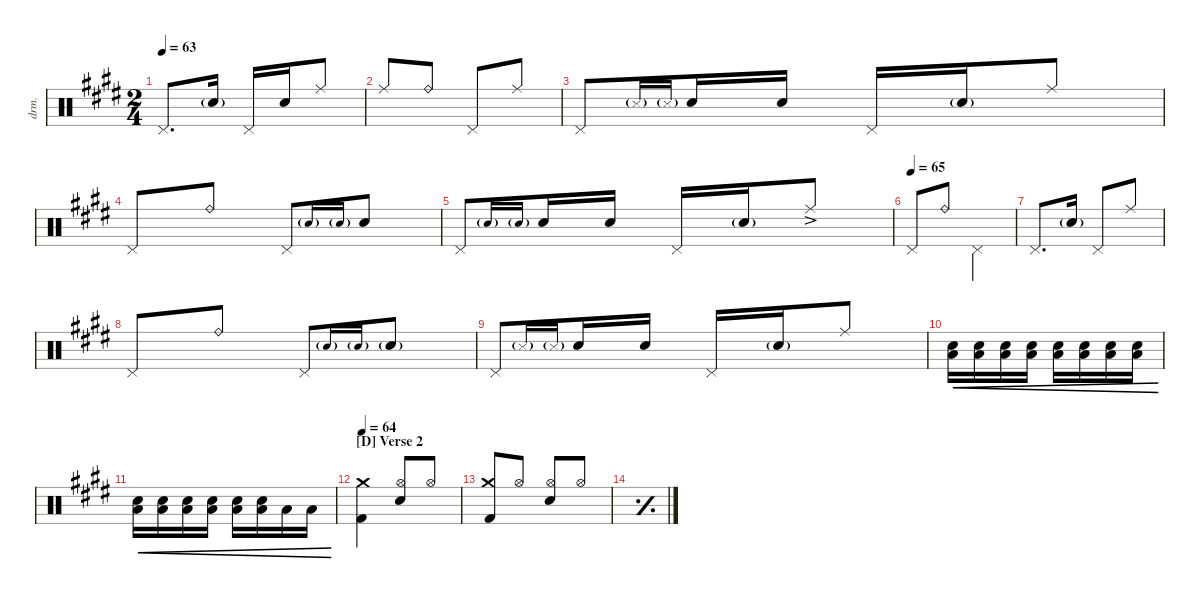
\defaultSystemsLayout 4
\hideDynamics
\bracketExtendMode groupsimilarinstruments
\otherSystemsTrackNameOrientation horizontal
\chordDiagramsInScore
\track ("Drumkit" "drm.") {instrument percussion}
\staff {score}
\articulation defaults
\ts (2 4)
\tempo 63
\clef neutral
\scale
1.05707
\ks e "Pedal Hi-Hat (hit)"{acc forcenatural}.8{d dy mf} "Snare (hit) 2"{g acc forcenatural}.16 "Pedal Hi-Hat (hit)"{acc forcenatural}.16 "Snare (hit) 2"{acc forcenatural}.16 "Ride (middle)"{acc forcenatural}.8
|
\scale
0.863338 "Ride (middle)"{acc forcenatural}.8{beam Up} "Ride (bell)"{acc forcenatural}.8{beam Up} "Pedal Hi-Hat (hit)"{acc forcenatural}.8 "Ride (middle)"{acc forcenatural}.8 |
"Pedal Hi-Hat (hit)"{acc forcenatural}.8 "Snare (side stick) 3"{g acc forcenatural}.16{gr onbeat} "Snare (side stick) 3"{g acc forcenatural}.16{gr onbeat} "Snare (hit) 2"{acc forcenatural}.16 "Snare (hit) 2"{acc forcenatural}.16 "Pedal Hi-Hat (hit)"{acc forcenatural}.16 "Snare (hit) 2"{g acc forcenatural}.16 "Ride (middle)"{acc forcenatural}.8 |
"Pedal Hi-Hat (hit)"{acc forcenatural}.8 "Ride (bell)"{acc forcenatural}.8 "Pedal Hi-Hat (hit)"{acc forcenatural}.8 "Snare (hit) 2"{g acc forcenatural}.16{gr onbeat} "Snare (hit) 2"{g acc forcenatural}.16{gr onbeat} "Snare (hit) 2"{acc forcenatural}.8 |
"Pedal Hi-Hat (hit)"{acc forcenatural}.8 "Snare (hit) 2"{g acc forcenatural}.16{gr onbeat} "Snare (hit) 2"{g acc forcenatural}.16{gr onbeat} "Snare (hit) 2"{acc forcenatural}.16 "Snare (hit) 2"{acc forcenatural}.16 "Pedal Hi-Hat (hit)"{acc forcenatural}.16 "Snare (hit) 2"{g acc forcenatural}.16 "Ride (middle)"{ac acc forcenatural}.8 |
\tempo (65)
"Pedal Hi-Hat (hit)"{acc forcenatural}.8 "Ride (bell)"{acc forcenatural}.8 "Pedal Hi-Hat (hit)"{acc forcenatural}.4{beam Down} |
\scale
1.08049 "Pedal Hi-Hat (hit)"{acc forcenatural}.8{d} "Snare (hit) 2"{g acc forcenatural}.16 "Pedal Hi-Hat (hit)"{acc forcenatural}.8 "Ride (middle)"{acc forcenatural}.8 |
\scale
0.977568 "Pedal Hi-Hat (hit)"{acc forcenatural}.8 "Ride (bell)"{acc forcenatural}.8 "Pedal Hi-Hat (hit)"{acc forcenatural}.8 "Snare (hit) 2"{g acc forcenatural}.16{gr onbeat} "Snare (hit) 2"{g acc forcenatural}.16{gr onbeat} "Snare (hit) 2"{g acc forcenatural}.8 |
\scale
1.16544 "Pedal Hi-Hat (hit)"{acc forcenatural}.8 "Snare (side stick) 3"{g acc forcenatural}.16{gr onbeat} "Snare (side stick) 3"{g acc forcenatural}.16{gr onbeat} "Snare (hit) 2"{acc forcenatural}.16 "Snare (hit) 2"{acc forcenatural}.16 "Pedal Hi-Hat (hit)"{acc forcenatural}.16 "Snare (hit) 2"{g acc forcenatural}.16 "Ride (middle)"{acc forcenatural}.8 |
\scale
0.878521 ("Snare (hit) 2"{acc forcenatural} "Low Tom (hit)"{acc forcenatural}).16{cre} ("Snare (hit) 2"{acc forcenatural} "Low Tom (hit)"{acc forcenatural}).16{cre} ("Snare (hit) 2"{acc forcenatural} "Low Tom (hit)"{acc forcenatural}).16{cre} ("Snare (hit) 2"{acc forcenatural} "Low Tom (hit)"{acc forcenatural}).16{cre} ("Snare (hit) 2"{acc forcenatural} "Low Tom (hit)"{acc forcenatural}).16{cre} ("Snare (hit) 2"{acc forcenatural} "Low Tom (hit)"{acc forcenatural}).16{cre} ("Snare (hit) 2"{acc forcenatural} "Low Tom (hit)"{acc forcenatural}).16{cre} ("Snare (hit) 2"{acc forcenatural} "Low Tom (hit)"{acc forcenatural}).16{cre} |
\scale
0.897973 ("Snare (hit) 2"{acc forcenatural} "Low Tom (hit)"{acc forcenatural}).16{cre} ("Snare (hit) 2"{acc forcenatural} "Low Tom (hit)"{acc forcenatural}).16{cre} ("Snare (hit) 2"{acc forcenatural} "Low Tom (hit)"{acc forcenatural}).16{cre} ("Snare (hit) 2"{acc forcenatural} "Low Tom (hit)"{acc forcenatural}).16{cre} ("Snare (hit) 2"{acc forcenatural} "Low Tom (hit)"{acc forcenatural}).16{cre} ("Snare (hit) 2"{acc forcenatural} "Low Tom (hit)"{acc forcenatural}).16{cre} "Low Tom (hit)"{acc forcenatural}.16{cre} "Low Tom (hit)"{acc forcenatural}.16{cre} |
\section ("D" "Verse 2")
\tempo 64
("Kick (hit) 2"{acc forcenatural} "Crash medium (hit)"{acc forcenatural}).4 ("Hi-Hat (open)"{acc forcenatural} "Snare (hit) 2"{acc forcenatural}).8{beam Up} "Hi-Hat (open)"{acc forcenatural}.8{beam Up} |
("Crash medium (hit)"{acc forcenatural} "Kick (hit) 2"{acc forcenatural}).8{beam Up} "Hi-Hat (open)"{acc forcenatural}.8{beam Up} ("Hi-Hat (open)"{acc forcenatural} "Snare (hit) 2"{acc forcenatural}).8{beam Up} "Hi-Hat (open)"{acc forcenatural}.8{beam Up} |
\simile simple
